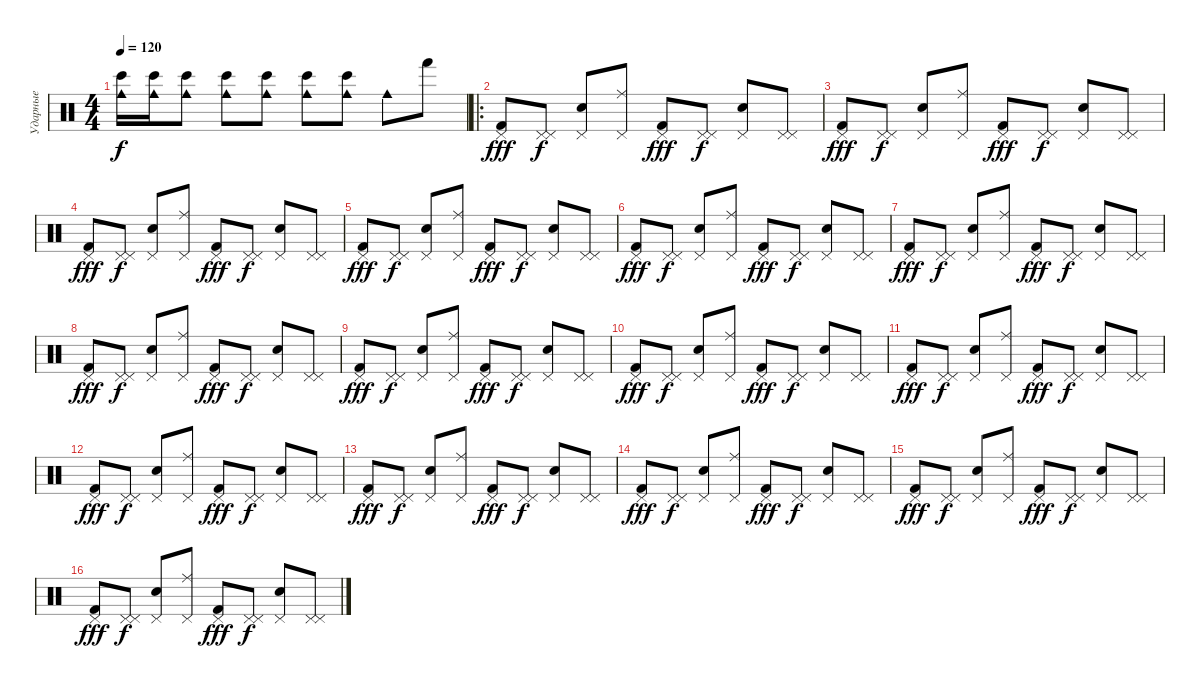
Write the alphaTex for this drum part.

\track ("Ударные" "Ударные") {instrument percussion}
\staff {score}
\articulation defaults
\ts (4 4)
\tempo 120
\clef neutral
\ks c
("Bongo High (hit)" "Cowbell medium (hit)").16{dy f} ("Bongo High (hit)" "Cowbell medium (hit)").16 ("Bongo High (hit)" "Cowbell medium (hit)").8 ("Bongo High (hit)" "Cowbell medium (hit)").8 ("Bongo High (hit)" "Cowbell medium (hit)").8 ("Bongo High (hit)" "Cowbell medium (hit)").8 ("Bongo High (hit)" "Cowbell medium (hit)").8 "Cowbell medium (hit)".8 "Hand (hit)".8 |
\ro
("Pedal Hi-Hat (hit)" "Kick (hit) 2").8{dy fff} ("Pedal Hi-Hat (hit)" "Pedal Hi-Hat (hit)").8{dy f} ("Pedal Hi-Hat (hit)" "Hand Clap (hit)").8 ("Pedal Hi-Hat (hit)" "Ride (middle)").8 ("Pedal Hi-Hat (hit)" "Kick (hit) 2").8{dy fff} ("Pedal Hi-Hat (hit)" "Pedal Hi-Hat (hit)").8{dy f} ("Pedal Hi-Hat (hit)" "Hand Clap (hit)").8 ("Pedal Hi-Hat (hit)" "Pedal Hi-Hat (hit)").8 |
("Pedal Hi-Hat (hit)" "Kick (hit) 2").8{dy fff} ("Pedal Hi-Hat (hit)" "Pedal Hi-Hat (hit)").8{dy f} ("Pedal Hi-Hat (hit)" "Hand Clap (hit)").8 ("Pedal Hi-Hat (hit)" "Ride (middle)").8 ("Pedal Hi-Hat (hit)" "Kick (hit) 2").8{dy fff} ("Pedal Hi-Hat (hit)" "Pedal Hi-Hat (hit)").8{dy f} ("Pedal Hi-Hat (hit)" "Hand Clap (hit)").8 ("Pedal Hi-Hat (hit)" "Pedal Hi-Hat (hit)").8 |
("Pedal Hi-Hat (hit)" "Kick (hit) 2").8{dy fff} ("Pedal Hi-Hat (hit)" "Pedal Hi-Hat (hit)").8{dy f} ("Pedal Hi-Hat (hit)" "Hand Clap (hit)").8 ("Pedal Hi-Hat (hit)" "Ride (middle)").8 ("Pedal Hi-Hat (hit)" "Kick (hit) 2").8{dy fff} ("Pedal Hi-Hat (hit)" "Pedal Hi-Hat (hit)").8{dy f} ("Pedal Hi-Hat (hit)" "Hand Clap (hit)").8 ("Pedal Hi-Hat (hit)" "Pedal Hi-Hat (hit)").8 |
("Pedal Hi-Hat (hit)" "Kick (hit) 2").8{dy fff} ("Pedal Hi-Hat (hit)" "Pedal Hi-Hat (hit)").8{dy f} ("Pedal Hi-Hat (hit)" "Hand Clap (hit)").8 ("Pedal Hi-Hat (hit)" "Ride (middle)").8 ("Pedal Hi-Hat (hit)" "Kick (hit) 2").8{dy fff} ("Pedal Hi-Hat (hit)" "Pedal Hi-Hat (hit)").8{dy f} ("Pedal Hi-Hat (hit)" "Hand Clap (hit)").8 ("Pedal Hi-Hat (hit)" "Pedal Hi-Hat (hit)").8 |
("Pedal Hi-Hat (hit)" "Kick (hit) 2").8{dy fff} ("Pedal Hi-Hat (hit)" "Pedal Hi-Hat (hit)").8{dy f} ("Pedal Hi-Hat (hit)" "Hand Clap (hit)").8 ("Pedal Hi-Hat (hit)" "Ride (middle)").8 ("Pedal Hi-Hat (hit)" "Kick (hit) 2").8{dy fff} ("Pedal Hi-Hat (hit)" "Pedal Hi-Hat (hit)").8{dy f} ("Pedal Hi-Hat (hit)" "Hand Clap (hit)").8 ("Pedal Hi-Hat (hit)" "Pedal Hi-Hat (hit)").8 |
("Pedal Hi-Hat (hit)" "Kick (hit) 2").8{dy fff} ("Pedal Hi-Hat (hit)" "Pedal Hi-Hat (hit)").8{dy f} ("Pedal Hi-Hat (hit)" "Hand Clap (hit)").8 ("Pedal Hi-Hat (hit)" "Ride (middle)").8 ("Pedal Hi-Hat (hit)" "Kick (hit) 2").8{dy fff} ("Pedal Hi-Hat (hit)" "Pedal Hi-Hat (hit)").8{dy f} ("Pedal Hi-Hat (hit)" "Hand Clap (hit)").8 ("Pedal Hi-Hat (hit)" "Pedal Hi-Hat (hit)").8 |
("Pedal Hi-Hat (hit)" "Kick (hit) 2").8{dy fff} ("Pedal Hi-Hat (hit)" "Pedal Hi-Hat (hit)").8{dy f} ("Pedal Hi-Hat (hit)" "Hand Clap (hit)").8 ("Pedal Hi-Hat (hit)" "Ride (middle)").8 ("Pedal Hi-Hat (hit)" "Kick (hit) 2").8{dy fff} ("Pedal Hi-Hat (hit)" "Pedal Hi-Hat (hit)").8{dy f} ("Pedal Hi-Hat (hit)" "Hand Clap (hit)").8 ("Pedal Hi-Hat (hit)" "Pedal Hi-Hat (hit)").8 |
("Pedal Hi-Hat (hit)" "Kick (hit) 2").8{dy fff} ("Pedal Hi-Hat (hit)" "Pedal Hi-Hat (hit)").8{dy f} ("Pedal Hi-Hat (hit)" "Hand Clap (hit)").8 ("Pedal Hi-Hat (hit)" "Ride (middle)").8 ("Pedal Hi-Hat (hit)" "Kick (hit) 2").8{dy fff} ("Pedal Hi-Hat (hit)" "Pedal Hi-Hat (hit)").8{dy f} ("Pedal Hi-Hat (hit)" "Hand Clap (hit)").8 ("Pedal Hi-Hat (hit)" "Pedal Hi-Hat (hit)").8 |
("Pedal Hi-Hat (hit)" "Kick (hit) 2").8{dy fff} ("Pedal Hi-Hat (hit)" "Pedal Hi-Hat (hit)").8{dy f} ("Pedal Hi-Hat (hit)" "Hand Clap (hit)").8 ("Pedal Hi-Hat (hit)" "Ride (middle)").8 ("Pedal Hi-Hat (hit)" "Kick (hit) 2").8{dy fff} ("Pedal Hi-Hat (hit)" "Pedal Hi-Hat (hit)").8{dy f} ("Pedal Hi-Hat (hit)" "Hand Clap (hit)").8 ("Pedal Hi-Hat (hit)" "Pedal Hi-Hat (hit)").8 |
("Pedal Hi-Hat (hit)" "Kick (hit) 2").8{dy fff} ("Pedal Hi-Hat (hit)" "Pedal Hi-Hat (hit)").8{dy f} ("Pedal Hi-Hat (hit)" "Hand Clap (hit)").8 ("Pedal Hi-Hat (hit)" "Ride (middle)").8 ("Pedal Hi-Hat (hit)" "Kick (hit) 2").8{dy fff} ("Pedal Hi-Hat (hit)" "Pedal Hi-Hat (hit)").8{dy f} ("Pedal Hi-Hat (hit)" "Hand Clap (hit)").8 ("Pedal Hi-Hat (hit)" "Pedal Hi-Hat (hit)").8 |
("Pedal Hi-Hat (hit)" "Kick (hit) 2").8{dy fff} ("Pedal Hi-Hat (hit)" "Pedal Hi-Hat (hit)").8{dy f} ("Pedal Hi-Hat (hit)" "Hand Clap (hit)").8 ("Pedal Hi-Hat (hit)" "Ride (middle)").8 ("Pedal Hi-Hat (hit)" "Kick (hit) 2").8{dy fff} ("Pedal Hi-Hat (hit)" "Pedal Hi-Hat (hit)").8{dy f} ("Pedal Hi-Hat (hit)" "Hand Clap (hit)").8 ("Pedal Hi-Hat (hit)" "Pedal Hi-Hat (hit)").8 |
("Pedal Hi-Hat (hit)" "Kick (hit) 2").8{dy fff} ("Pedal Hi-Hat (hit)" "Pedal Hi-Hat (hit)").8{dy f} ("Pedal Hi-Hat (hit)" "Hand Clap (hit)").8 ("Pedal Hi-Hat (hit)" "Ride (middle)").8 ("Pedal Hi-Hat (hit)" "Kick (hit) 2").8{dy fff} ("Pedal Hi-Hat (hit)" "Pedal Hi-Hat (hit)").8{dy f} ("Pedal Hi-Hat (hit)" "Hand Clap (hit)").8 ("Pedal Hi-Hat (hit)" "Pedal Hi-Hat (hit)").8 |
("Pedal Hi-Hat (hit)" "Kick (hit) 2").8{dy fff} ("Pedal Hi-Hat (hit)" "Pedal Hi-Hat (hit)").8{dy f} ("Pedal Hi-Hat (hit)" "Hand Clap (hit)").8 ("Pedal Hi-Hat (hit)" "Ride (middle)").8 ("Pedal Hi-Hat (hit)" "Kick (hit) 2").8{dy fff} ("Pedal Hi-Hat (hit)" "Pedal Hi-Hat (hit)").8{dy f} ("Pedal Hi-Hat (hit)" "Hand Clap (hit)").8 ("Pedal Hi-Hat (hit)" "Pedal Hi-Hat (hit)").8 |
("Pedal Hi-Hat (hit)" "Kick (hit) 2").8{dy fff} ("Pedal Hi-Hat (hit)" "Pedal Hi-Hat (hit)").8{dy f} ("Pedal Hi-Hat (hit)" "Hand Clap (hit)").8 ("Pedal Hi-Hat (hit)" "Ride (middle)").8 ("Pedal Hi-Hat (hit)" "Kick (hit) 2").8{dy fff} ("Pedal Hi-Hat (hit)" "Pedal Hi-Hat (hit)").8{dy f} ("Pedal Hi-Hat (hit)" "Hand Clap (hit)").8 ("Pedal Hi-Hat (hit)" "Pedal Hi-Hat (hit)").8 |
("Pedal Hi-Hat (hit)" "Kick (hit) 2").8{dy fff} ("Pedal Hi-Hat (hit)" "Pedal Hi-Hat (hit)").8{dy f} ("Pedal Hi-Hat (hit)" "Hand Clap (hit)").8 ("Pedal Hi-Hat (hit)" "Ride (middle)").8 ("Pedal Hi-Hat (hit)" "Kick (hit) 2").8{dy fff} ("Pedal Hi-Hat (hit)" "Pedal Hi-Hat (hit)").8{dy f} ("Pedal Hi-Hat (hit)" "Hand Clap (hit)").8 ("Pedal Hi-Hat (hit)" "Pedal Hi-Hat (hit)").8
